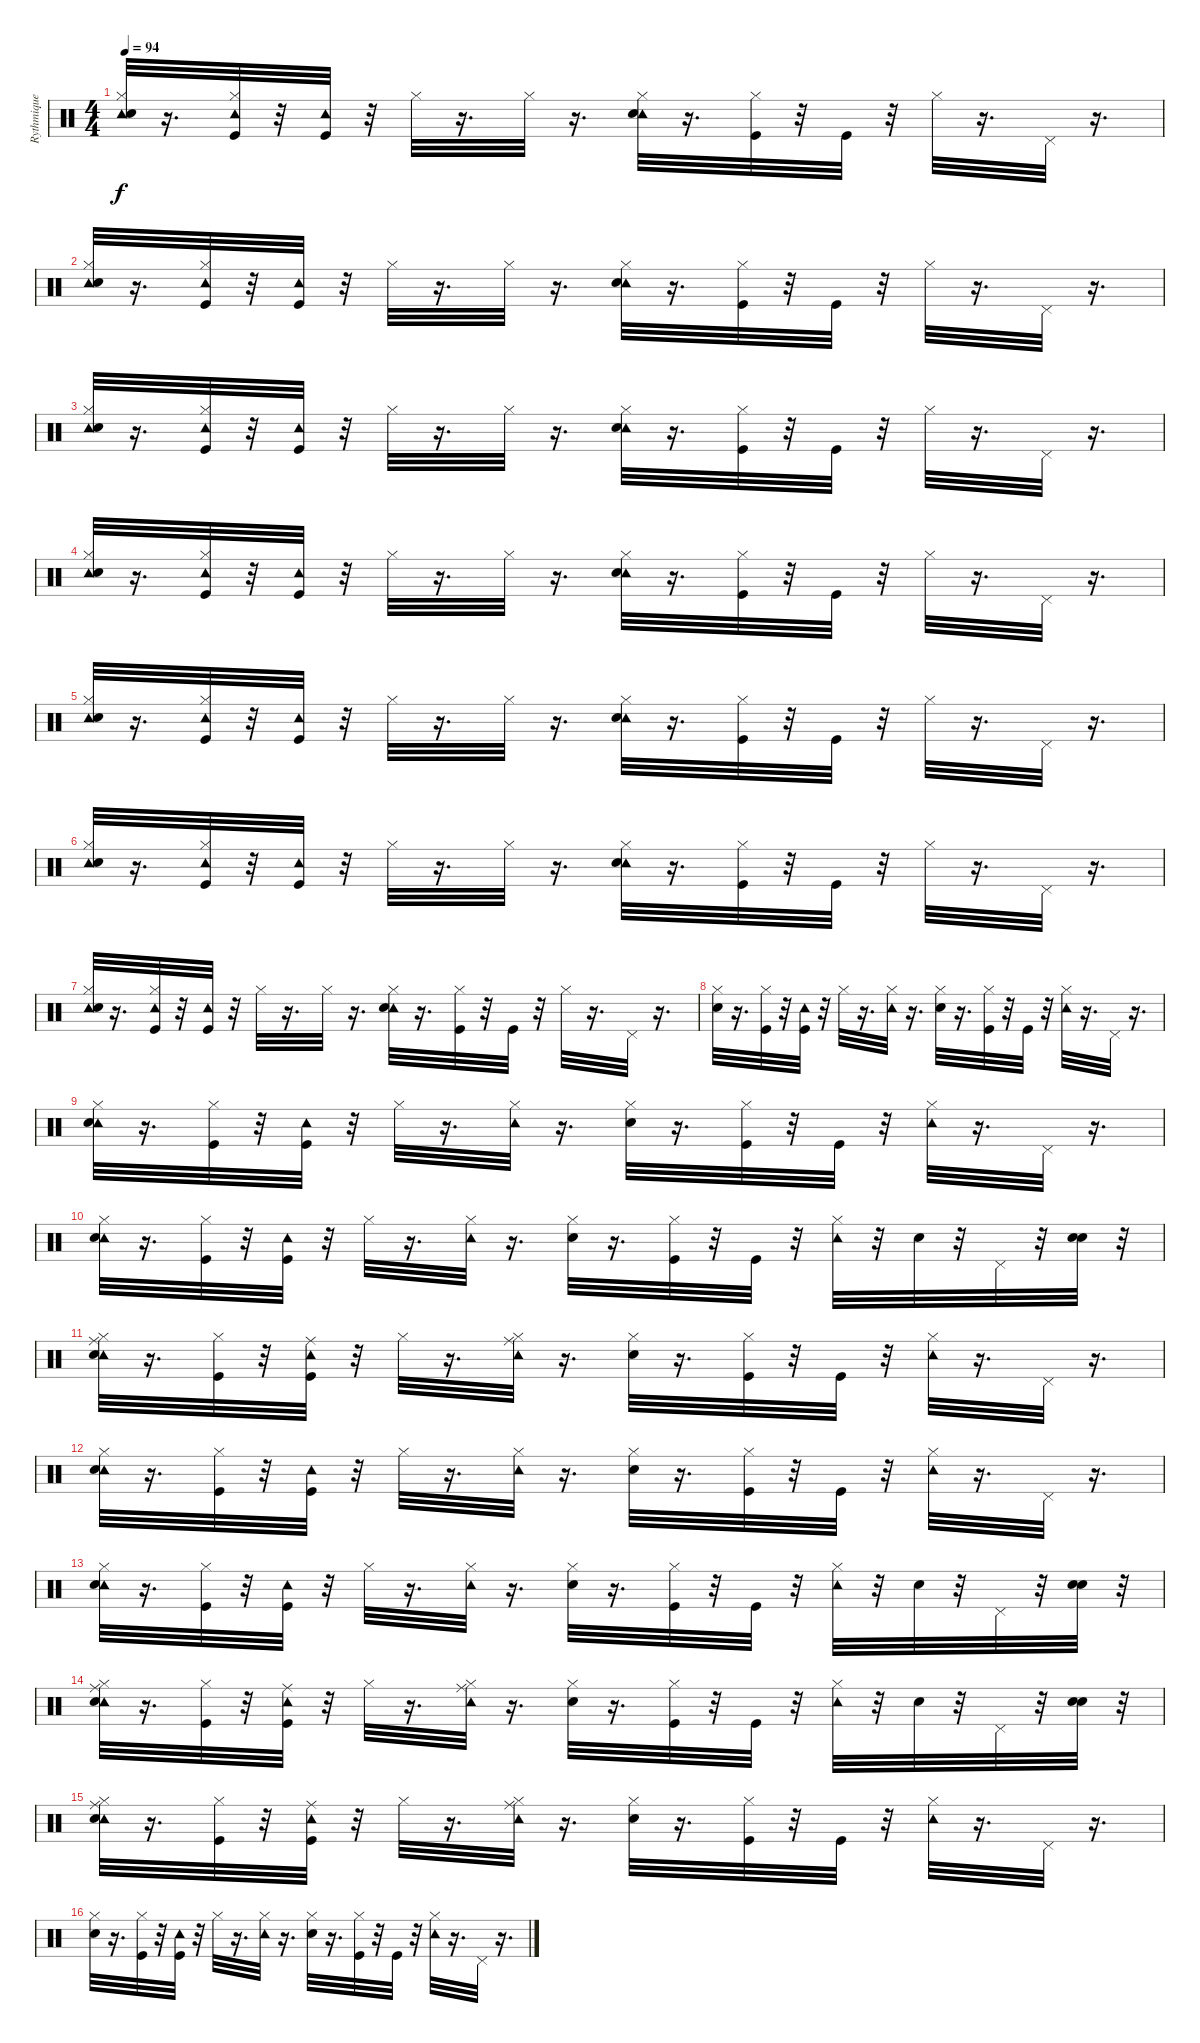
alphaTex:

\track ("Rythmique" "Rythmique") {instrument percussion}
\staff {score}
\articulation defaults
\ts (4 4)
\tempo 94
\clef neutral
\ks c
("Tambourine (hit)" "Hi-Hat (closed)" "Electric Snare (hit)").32{dy f} r.16{d} ("Tambourine (hit)" "Hi-Hat (closed)" "Kick (hit)").32 r.32 ("Tambourine (hit)" "Kick (hit)").32 r.32 "Hi-Hat (closed)".32 r.16{d} "Hi-Hat (closed)".32 r.16{d} ("Tambourine (hit)" "Hi-Hat (closed)" "Electric Snare (hit)").32 r.16{d} ("Hi-Hat (closed)" "Kick (hit)").32 r.32 "Kick (hit)".32 r.32 "Hi-Hat (closed)".32 r.16{d} "Pedal Hi-Hat (hit)".32 r.16{d} |
("Tambourine (hit)" "Hi-Hat (closed)" "Electric Snare (hit)").32 r.16{d} ("Tambourine (hit)" "Hi-Hat (closed)" "Kick (hit)").32 r.32 ("Tambourine (hit)" "Kick (hit)").32 r.32 "Hi-Hat (closed)".32 r.16{d} "Hi-Hat (closed)".32 r.16{d} ("Tambourine (hit)" "Hi-Hat (closed)" "Electric Snare (hit)").32 r.16{d} ("Hi-Hat (closed)" "Kick (hit)").32 r.32 "Kick (hit)".32 r.32 "Hi-Hat (closed)".32 r.16{d} "Pedal Hi-Hat (hit)".32 r.16{d} |
("Tambourine (hit)" "Hi-Hat (closed)" "Electric Snare (hit)").32 r.16{d} ("Tambourine (hit)" "Hi-Hat (closed)" "Kick (hit)").32 r.32 ("Tambourine (hit)" "Kick (hit)").32 r.32 "Hi-Hat (closed)".32 r.16{d} "Hi-Hat (closed)".32 r.16{d} ("Tambourine (hit)" "Hi-Hat (closed)" "Electric Snare (hit)").32 r.16{d} ("Hi-Hat (closed)" "Kick (hit)").32 r.32 "Kick (hit)".32 r.32 "Hi-Hat (closed)".32 r.16{d} "Pedal Hi-Hat (hit)".32 r.16{d} |
("Tambourine (hit)" "Hi-Hat (closed)" "Electric Snare (hit)").32 r.16{d} ("Tambourine (hit)" "Hi-Hat (closed)" "Kick (hit)").32 r.32 ("Tambourine (hit)" "Kick (hit)").32 r.32 "Hi-Hat (closed)".32 r.16{d} "Hi-Hat (closed)".32 r.16{d} ("Tambourine (hit)" "Hi-Hat (closed)" "Electric Snare (hit)").32 r.16{d} ("Hi-Hat (closed)" "Kick (hit)").32 r.32 "Kick (hit)".32 r.32 "Hi-Hat (closed)".32 r.16{d} "Pedal Hi-Hat (hit)".32 r.16{d} |
("Tambourine (hit)" "Hi-Hat (closed)" "Electric Snare (hit)").32 r.16{d} ("Tambourine (hit)" "Hi-Hat (closed)" "Kick (hit)").32 r.32 ("Tambourine (hit)" "Kick (hit)").32 r.32 "Hi-Hat (closed)".32 r.16{d} "Hi-Hat (closed)".32 r.16{d} ("Tambourine (hit)" "Hi-Hat (closed)" "Electric Snare (hit)").32 r.16{d} ("Hi-Hat (closed)" "Kick (hit)").32 r.32 "Kick (hit)".32 r.32 "Hi-Hat (closed)".32 r.16{d} "Pedal Hi-Hat (hit)".32 r.16{d} |
("Tambourine (hit)" "Hi-Hat (closed)" "Electric Snare (hit)").32 r.16{d} ("Tambourine (hit)" "Hi-Hat (closed)" "Kick (hit)").32 r.32 ("Tambourine (hit)" "Kick (hit)").32 r.32 "Hi-Hat (closed)".32 r.16{d} "Hi-Hat (closed)".32 r.16{d} ("Tambourine (hit)" "Hi-Hat (closed)" "Electric Snare (hit)").32 r.16{d} ("Hi-Hat (closed)" "Kick (hit)").32 r.32 "Kick (hit)".32 r.32 "Hi-Hat (closed)".32 r.16{d} "Pedal Hi-Hat (hit)".32 r.16{d} |
("Tambourine (hit)" "Hi-Hat (closed)" "Electric Snare (hit)").32 r.16{d} ("Tambourine (hit)" "Hi-Hat (closed)" "Kick (hit)").32 r.32 ("Tambourine (hit)" "Kick (hit)").32 r.32 "Hi-Hat (closed)".32 r.16{d} "Hi-Hat (closed)".32 r.16{d} ("Tambourine (hit)" "Hi-Hat (closed)" "Electric Snare (hit)").32 r.16{d} ("Hi-Hat (closed)" "Kick (hit)").32 r.32 "Kick (hit)".32 r.32 "Hi-Hat (closed)".32 r.16{d} "Pedal Hi-Hat (hit)".32 r.16{d} |
("Hi-Hat (closed)" "Electric Snare (hit)").32 r.16{d} ("Hi-Hat (closed)" "Kick (hit)").32 r.32 ("Tambourine (hit)" "Kick (hit)").32 r.32 "Hi-Hat (closed)".32 r.16{d} ("Tambourine (hit)" "Hi-Hat (closed)").32 r.16{d} ("Hi-Hat (closed)" "Electric Snare (hit)").32 r.16{d} ("Hi-Hat (closed)" "Kick (hit)").32 r.32 "Kick (hit)".32 r.32 ("Tambourine (hit)" "Hi-Hat (closed)").32 r.16{d} "Pedal Hi-Hat (hit)".32 r.16{d} |
("Tambourine (hit)" "Hi-Hat (closed)" "Electric Snare (hit)").32 r.16{d} ("Hi-Hat (closed)" "Kick (hit)").32 r.32 ("Tambourine (hit)" "Kick (hit)").32 r.32 "Hi-Hat (closed)".32 r.16{d} ("Tambourine (hit)" "Hi-Hat (closed)").32 r.16{d} ("Hi-Hat (closed)" "Electric Snare (hit)").32 r.16{d} ("Hi-Hat (closed)" "Kick (hit)").32 r.32 "Kick (hit)".32 r.32 ("Tambourine (hit)" "Hi-Hat (closed)").32 r.16{d} "Pedal Hi-Hat (hit)".32 r.16{d} |
("Tambourine (hit)" "Hi-Hat (closed)" "Electric Snare (hit)").32 r.16{d} ("Hi-Hat (closed)" "Kick (hit)").32 r.32 ("Tambourine (hit)" "Kick (hit)").32 r.32 "Hi-Hat (closed)".32 r.16{d} ("Tambourine (hit)" "Hi-Hat (closed)").32 r.16{d} ("Hi-Hat (closed)" "Electric Snare (hit)").32 r.16{d} ("Hi-Hat (closed)" "Kick (hit)").32 r.32 "Kick (hit)".32 r.32 ("Tambourine (hit)" "Hi-Hat (closed)").32 r.32 "Electric Snare (hit)".32 r.32 "Pedal Hi-Hat (hit)".32 r.32 ("Snare (hit) 2" "Electric Snare (hit)").32 r.32 |
("Ride (middle)" "Tambourine (hit)" "Hi-Hat (closed)" "Electric Snare (hit)").32 r.16{d} ("Hi-Hat (closed)" "Kick (hit)").32 r.32 ("Ride (middle)" "Tambourine (hit)" "Kick (hit)").32 r.32 "Hi-Hat (closed)".32 r.16{d} ("Ride (middle)" "Tambourine (hit)" "Hi-Hat (closed)").32 r.16{d} ("Hi-Hat (closed)" "Electric Snare (hit)").32 r.16{d} ("Hi-Hat (closed)" "Kick (hit)").32 r.32 "Kick (hit)".32 r.32 ("Tambourine (hit)" "Hi-Hat (closed)").32 r.16{d} "Pedal Hi-Hat (hit)".32 r.16{d} |
("Tambourine (hit)" "Hi-Hat (closed)" "Electric Snare (hit)").32 r.16{d} ("Hi-Hat (closed)" "Kick (hit)").32 r.32 ("Tambourine (hit)" "Kick (hit)").32 r.32 "Hi-Hat (closed)".32 r.16{d} ("Tambourine (hit)" "Hi-Hat (closed)").32 r.16{d} ("Hi-Hat (closed)" "Electric Snare (hit)").32 r.16{d} ("Hi-Hat (closed)" "Kick (hit)").32 r.32 "Kick (hit)".32 r.32 ("Tambourine (hit)" "Hi-Hat (closed)").32 r.16{d} "Pedal Hi-Hat (hit)".32 r.16{d} |
("Tambourine (hit)" "Hi-Hat (closed)" "Electric Snare (hit)").32 r.16{d} ("Hi-Hat (closed)" "Kick (hit)").32 r.32 ("Tambourine (hit)" "Kick (hit)").32 r.32 "Hi-Hat (closed)".32 r.16{d} ("Tambourine (hit)" "Hi-Hat (closed)").32 r.16{d} ("Hi-Hat (closed)" "Electric Snare (hit)").32 r.16{d} ("Hi-Hat (closed)" "Kick (hit)").32 r.32 "Kick (hit)".32 r.32 ("Tambourine (hit)" "Hi-Hat (closed)").32 r.32 "Electric Snare (hit)".32 r.32 "Pedal Hi-Hat (hit)".32 r.32 ("Electric Snare (hit)" "Snare (hit) 2").32 r.32 |
("Ride (middle)" "Tambourine (hit)" "Hi-Hat (closed)" "Electric Snare (hit)").32 r.16{d} ("Hi-Hat (closed)" "Kick (hit)").32 r.32 ("Ride (middle)" "Tambourine (hit)" "Kick (hit)").32 r.32 "Hi-Hat (closed)".32 r.16{d} ("Ride (middle)" "Tambourine (hit)" "Hi-Hat (closed)").32 r.16{d} ("Hi-Hat (closed)" "Electric Snare (hit)").32 r.16{d} ("Hi-Hat (closed)" "Kick (hit)").32 r.32 "Kick (hit)".32 r.32 ("Tambourine (hit)" "Hi-Hat (closed)").32 r.32 "Electric Snare (hit)".32 r.32 "Pedal Hi-Hat (hit)".32 r.32 ("Snare (hit) 2" "Electric Snare (hit)").32 r.32 |
("Ride (middle)" "Tambourine (hit)" "Hi-Hat (closed)" "Electric Snare (hit)").32 r.16{d} ("Hi-Hat (closed)" "Kick (hit)").32 r.32 ("Ride (middle)" "Tambourine (hit)" "Kick (hit)").32 r.32 "Hi-Hat (closed)".32 r.16{d} ("Ride (middle)" "Tambourine (hit)" "Hi-Hat (closed)").32 r.16{d} ("Hi-Hat (closed)" "Electric Snare (hit)").32 r.16{d} ("Hi-Hat (closed)" "Kick (hit)").32 r.32 "Kick (hit)".32 r.32 ("Tambourine (hit)" "Hi-Hat (closed)").32 r.16{d} "Pedal Hi-Hat (hit)".32 r.16{d} |
("Hi-Hat (closed)" "Electric Snare (hit)").32 r.16{d} ("Hi-Hat (closed)" "Kick (hit)").32 r.32 ("Tambourine (hit)" "Kick (hit)").32 r.32 "Hi-Hat (closed)".32 r.16{d} ("Tambourine (hit)" "Hi-Hat (closed)").32 r.16{d} ("Hi-Hat (closed)" "Electric Snare (hit)").32 r.16{d} ("Hi-Hat (closed)" "Kick (hit)").32 r.32 "Kick (hit)".32 r.32 ("Tambourine (hit)" "Hi-Hat (closed)").32 r.16{d} "Pedal Hi-Hat (hit)".32 r.16{d}
